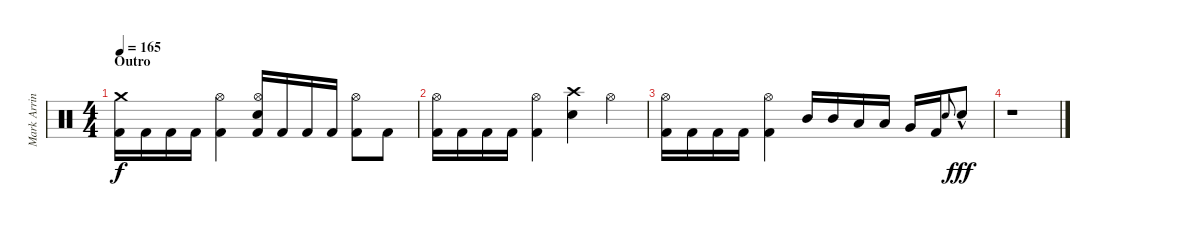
\track ("Mark Arrington Drums" "Mark Arrin") {instrument percussion}
\staff {score}
\articulation defaults
\ts (4 4)
\section ("" "Outro")
\tempo 165
\clef neutral
\ks c
("Crash medium (hit)" "Kick (hit) 2").16{dy f} "Kick (hit) 2".16 "Kick (hit) 2".16 "Kick (hit) 2".16 ("Hi-Hat (open)" "Kick (hit) 2").4 ("Hi-Hat (open)" "Electric Snare (hit)" "Kick (hit) 2").16 "Kick (hit) 2".16 "Kick (hit) 2".16 "Kick (hit) 2".16 ("Hi-Hat (open)" "Kick (hit) 2").8 "Kick (hit) 2".8 |
("Hi-Hat (open)" "Kick (hit) 2").16 "Kick (hit) 2".16 "Kick (hit) 2".16 "Kick (hit) 2".16 ("Hi-Hat (open)" "Kick (hit) 2").4 ("Crash high (hit)" "Electric Snare (hit)").4 "Hi-Hat (open)".4 |
("Hi-Hat (open)" "Kick (hit) 2").16 "Kick (hit) 2".16 "Kick (hit) 2".16 "Kick (hit) 2".16 ("Hi-Hat (open)" "Kick (hit) 2").4 "Mid Tom (hit)".16 "Mid Tom (hit)".16 "Low Tom (hit)".16 "Low Tom (hit)".16 "Very Low Tom (hit)".16 "Kick (hit) 2".16 "Electric Snare (hit)".8{gr onbeat} "Electric Snare (hit)"{hac}.8{dy fff} |
r.1
